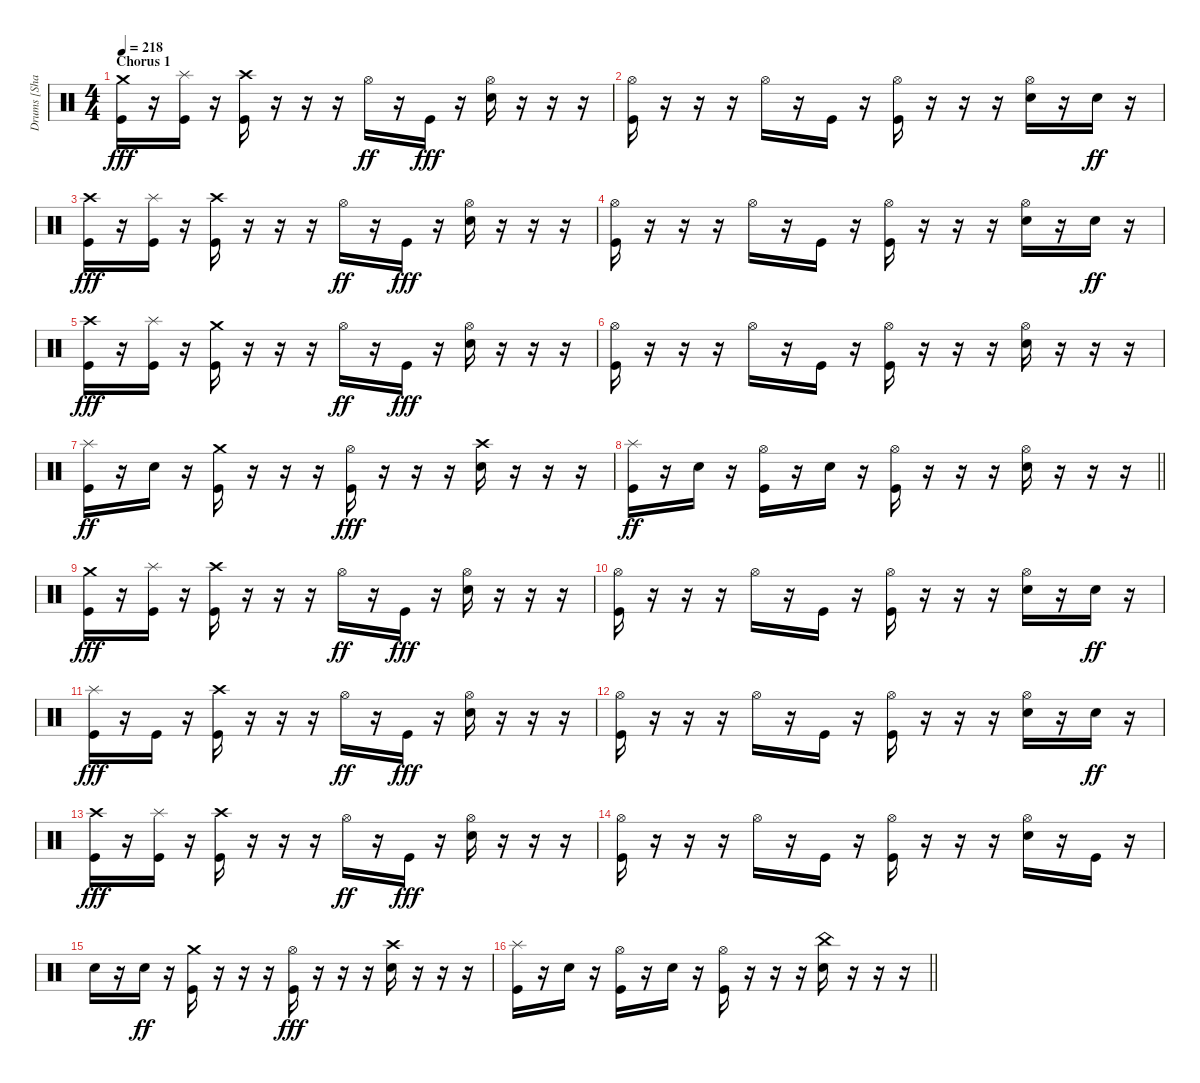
\track ("Drums [Shannon Larkin]" "Drums [Sha") {instrument percussion}
\staff {score}
\articulation defaults
\ts (4 4)
\section ("" "Chorus 1")
\tempo 218
\clef neutral
\ks c
("Crash medium (hit)" "Kick (hit)").16{dy fff} r.16 ("Splash (hit)" "Kick (hit)").16 r.16 ("Crash high (hit)" "Kick (hit)").16 r.16 r.16 r.16 "Hi-Hat (open)".16{dy ff} r.16 "Kick (hit)".16{dy fff} r.16 ("Hi-Hat (open)" "Electric Snare (hit)").16 r.16 r.16 r.16 |
("Hi-Hat (open)" "Kick (hit)").16 r.16 r.16 r.16 "Hi-Hat (open)".16 r.16 "Kick (hit)".16 r.16 ("Hi-Hat (open)" "Kick (hit)").16 r.16 r.16 r.16 ("Hi-Hat (open)" "Electric Snare (hit)").16 r.16 "Electric Snare (hit)".16{dy ff} r.16 |
("Crash high (hit)" "Kick (hit)").16{dy fff} r.16 ("Splash (hit)" "Kick (hit)").16 r.16 ("Crash high (hit)" "Kick (hit)").16 r.16 r.16 r.16 "Hi-Hat (open)".16{dy ff} r.16 "Kick (hit)".16{dy fff} r.16 ("Hi-Hat (open)" "Electric Snare (hit)").16 r.16 r.16 r.16 |
("Hi-Hat (open)" "Kick (hit)").16 r.16 r.16 r.16 "Hi-Hat (open)".16 r.16 "Kick (hit)".16 r.16 ("Hi-Hat (open)" "Kick (hit)").16 r.16 r.16 r.16 ("Hi-Hat (open)" "Electric Snare (hit)").16 r.16 "Electric Snare (hit)".16{dy ff} r.16 |
("Crash high (hit)" "Kick (hit)").16{dy fff} r.16 ("Splash (hit)" "Kick (hit)").16 r.16 ("Crash medium (hit)" "Kick (hit)").16 r.16 r.16 r.16 "Hi-Hat (open)".16{dy ff} r.16 "Kick (hit)".16{dy fff} r.16 ("Hi-Hat (open)" "Electric Snare (hit)").16 r.16 r.16 r.16 |
("Hi-Hat (open)" "Kick (hit)").16 r.16 r.16 r.16 "Hi-Hat (open)".16 r.16 "Kick (hit)".16 r.16 ("Hi-Hat (open)" "Kick (hit)").16 r.16 r.16 r.16 ("Hi-Hat (open)" "Electric Snare (hit)").16 r.16 r.16 r.16 |
("Splash (hit)" "Kick (hit)").16{dy ff} r.16 "Electric Snare (hit)".16 r.16 ("Crash medium (hit)" "Kick (hit)").16 r.16 r.16 r.16 ("Hi-Hat (open)" "Kick (hit)").16{dy fff} r.16 r.16 r.16 ("Crash high (hit)" "Electric Snare (hit)").16 r.16 r.16 r.16 |
\barLineRight lightlight
("Splash (hit)" "Kick (hit)").16{dy ff} r.16 "Electric Snare (hit)".16 r.16 ("Hi-Hat (open)" "Kick (hit)").16 r.16 "Electric Snare (hit)".16 r.16 ("Hi-Hat (open)" "Kick (hit)").16 r.16 r.16 r.16 ("Hi-Hat (open)" "Electric Snare (hit)").16 r.16 r.16 r.16 |
("Crash medium (hit)" "Kick (hit)").16{dy fff} r.16 ("Splash (hit)" "Kick (hit)").16 r.16 ("Crash high (hit)" "Kick (hit)").16 r.16 r.16 r.16 "Hi-Hat (open)".16{dy ff} r.16 "Kick (hit)".16{dy fff} r.16 ("Hi-Hat (open)" "Electric Snare (hit)").16 r.16 r.16 r.16 |
("Hi-Hat (open)" "Kick (hit)").16 r.16 r.16 r.16 "Hi-Hat (open)".16 r.16 "Kick (hit)".16 r.16 ("Hi-Hat (open)" "Kick (hit)").16 r.16 r.16 r.16 ("Hi-Hat (open)" "Electric Snare (hit)").16 r.16 "Electric Snare (hit)".16{dy ff} r.16 |
("Splash (hit)" "Kick (hit)").16{dy fff} r.16 "Kick (hit)".16 r.16 ("Crash high (hit)" "Kick (hit)").16 r.16 r.16 r.16 "Hi-Hat (open)".16{dy ff} r.16 "Kick (hit)".16{dy fff} r.16 ("Hi-Hat (open)" "Electric Snare (hit)").16 r.16 r.16 r.16 |
("Hi-Hat (open)" "Kick (hit)").16 r.16 r.16 r.16 "Hi-Hat (open)".16 r.16 "Kick (hit)".16 r.16 ("Hi-Hat (open)" "Kick (hit)").16 r.16 r.16 r.16 ("Hi-Hat (open)" "Electric Snare (hit)").16 r.16 "Electric Snare (hit)".16{dy ff} r.16 |
("Crash high (hit)" "Kick (hit)").16{dy fff} r.16 ("Splash (hit)" "Kick (hit)").16 r.16 ("Crash high (hit)" "Kick (hit)").16 r.16 r.16 r.16 "Hi-Hat (open)".16{dy ff} r.16 "Kick (hit)".16{dy fff} r.16 ("Hi-Hat (open)" "Electric Snare (hit)").16 r.16 r.16 r.16 |
("Hi-Hat (open)" "Kick (hit)").16 r.16 r.16 r.16 "Hi-Hat (open)".16 r.16 "Kick (hit)".16 r.16 ("Hi-Hat (open)" "Kick (hit)").16 r.16 r.16 r.16 ("Hi-Hat (open)" "Electric Snare (hit)").16 r.16 "Kick (hit)".16 r.16 |
"Electric Snare (hit)".16 r.16 "Electric Snare (hit)".16{dy ff} r.16 ("Crash medium (hit)" "Kick (hit)").16 r.16 r.16 r.16 ("Hi-Hat (open)" "Kick (hit)").16{dy fff} r.16 r.16 r.16 ("Crash high (hit)" "Electric Snare (hit)").16 r.16 r.16 r.16 |
\barLineRight lightlight
("Splash (hit)" "Kick (hit)").16 r.16 "Electric Snare (hit)".16 r.16 ("Hi-Hat (open)" "Kick (hit)").16 r.16 "Electric Snare (hit)".16 r.16 ("Hi-Hat (open)" "Kick (hit)").16 r.16 r.16 r.16 ("China (hit)" "Electric Snare (hit)").16 r.16 r.16 r.16
